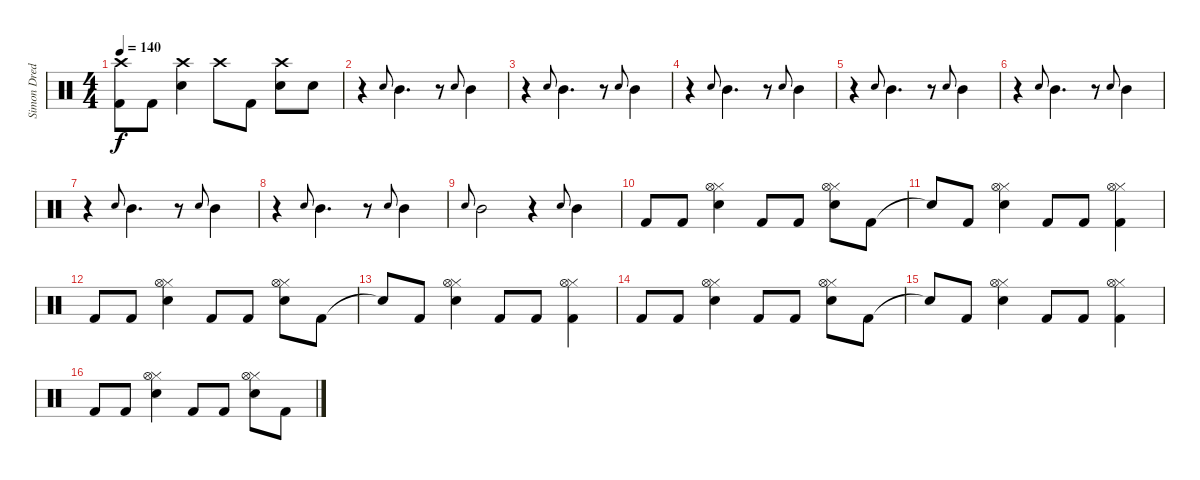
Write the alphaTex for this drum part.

\track ("Simon Dredo" "Simon Dred") {instrument percussion}
\staff {score}
\articulation defaults
\ts (4 4)
\tempo 140
\clef neutral
\ks c
("Crash high (hit)" "Kick (hit) 2").8{dy f} "Kick (hit) 2".8 ("Crash high (hit)" "Electric Snare (hit)").4 "Crash high (hit)".8 "Kick (hit) 2".8 ("Crash high (hit)" "Electric Snare (hit)").8 "Electric Snare (hit)".8 |
r.4 "Electric Snare (hit)".8{gr onbeat} "Mid Tom (hit)".4{d} r.8 "Electric Snare (hit)".8{gr onbeat} "Mid Tom (hit)".4 |
r.4 "Electric Snare (hit)".8{gr onbeat} "Mid Tom (hit)".4{d} r.8 "Electric Snare (hit)".8{gr onbeat} "Mid Tom (hit)".4 |
r.4 "Electric Snare (hit)".8{gr onbeat} "Mid Tom (hit)".4{d} r.8 "Electric Snare (hit)".8{gr onbeat} "Mid Tom (hit)".4 |
r.4 "Electric Snare (hit)".8{gr onbeat} "Mid Tom (hit)".4{d} r.8 "Electric Snare (hit)".8{gr onbeat} "Mid Tom (hit)".4 |
r.4 "Electric Snare (hit)".8{gr onbeat} "Mid Tom (hit)".4{d} r.8 "Electric Snare (hit)".8{gr onbeat} "Mid Tom (hit)".4 |
r.4 "Electric Snare (hit)".8{gr onbeat} "Mid Tom (hit)".4{d} r.8 "Electric Snare (hit)".8{gr onbeat} "Mid Tom (hit)".4 |
r.4 "Electric Snare (hit)".8{gr onbeat} "Mid Tom (hit)".4{d} r.8 "Electric Snare (hit)".8{gr onbeat} "Mid Tom (hit)".4 |
"Electric Snare (hit)".8{gr onbeat} "Mid Tom (hit)".2 r.4 "Electric Snare (hit)".8{gr onbeat} "Mid Tom (hit)".4 |
"Kick (hit) 2".8 "Kick (hit) 2".8 ("Hi-Hat (closed)" "Hi-Hat (open)" "Snare (hit) 2").4 "Kick (hit) 2".8 "Kick (hit) 2".8 ("Hi-Hat (closed)" "Hi-Hat (open)" "Snare (hit) 2").8 "Kick (hit) 2".8 |
"Snare (hit)"{t}.8 "Kick (hit) 2".8 ("Hi-Hat (closed)" "Hi-Hat (open)" "Snare (hit) 2").4 "Kick (hit) 2".8 "Kick (hit) 2".8 ("Hi-Hat (closed)" "Hi-Hat (open)" "Kick (hit) 2").4 |
"Kick (hit) 2".8 "Kick (hit) 2".8 ("Hi-Hat (closed)" "Hi-Hat (open)" "Snare (hit) 2").4 "Kick (hit) 2".8 "Kick (hit) 2".8 ("Hi-Hat (closed)" "Hi-Hat (open)" "Snare (hit) 2").8 "Kick (hit) 2".8 |
"Snare (hit)"{t}.8 "Kick (hit) 2".8 ("Hi-Hat (closed)" "Hi-Hat (open)" "Snare (hit) 2").4 "Kick (hit) 2".8 "Kick (hit) 2".8 ("Hi-Hat (closed)" "Hi-Hat (open)" "Kick (hit) 2").4 |
"Kick (hit) 2".8 "Kick (hit) 2".8 ("Hi-Hat (closed)" "Hi-Hat (open)" "Snare (hit) 2").4 "Kick (hit) 2".8 "Kick (hit) 2".8 ("Hi-Hat (closed)" "Hi-Hat (open)" "Snare (hit) 2").8 "Kick (hit) 2".8 |
"Snare (hit)"{t}.8 "Kick (hit) 2".8 ("Hi-Hat (closed)" "Hi-Hat (open)" "Snare (hit) 2").4 "Kick (hit) 2".8 "Kick (hit) 2".8 ("Hi-Hat (closed)" "Hi-Hat (open)" "Kick (hit) 2").4 |
"Kick (hit) 2".8 "Kick (hit) 2".8 ("Hi-Hat (closed)" "Hi-Hat (open)" "Snare (hit) 2").4 "Kick (hit) 2".8 "Kick (hit) 2".8 ("Hi-Hat (closed)" "Hi-Hat (open)" "Snare (hit) 2").8 "Kick (hit) 2".8
